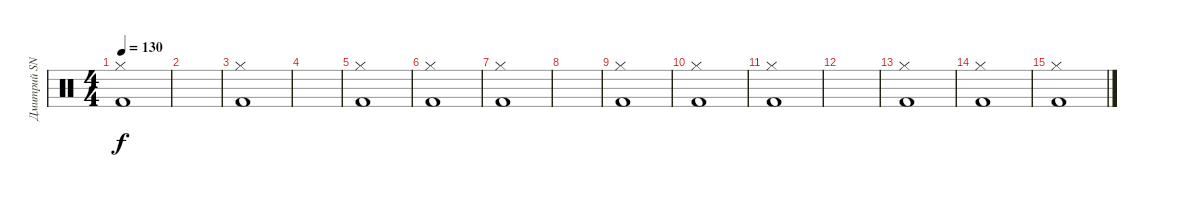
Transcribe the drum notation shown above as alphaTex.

\track ("Дмитрий SNAKE Хакимов" "Дмитрий SN") {instrument percussion}
\staff {score}
\articulation defaults
\ts (4 4)
\tempo 130
\clef neutral
\ks c
("Hi-Hat (closed)" "Kick (hit) 2").1{dy f} |
|
("Hi-Hat (closed)" "Kick (hit) 2").1 |
|
("Hi-Hat (closed)" "Kick (hit) 2").1 |
("Hi-Hat (closed)" "Kick (hit) 2").1 |
("Hi-Hat (closed)" "Kick (hit) 2").1 |
|
("Hi-Hat (closed)" "Kick (hit) 2").1 |
("Hi-Hat (closed)" "Kick (hit) 2").1 |
("Hi-Hat (closed)" "Kick (hit) 2").1 |
|
("Hi-Hat (closed)" "Kick (hit) 2").1 |
("Hi-Hat (closed)" "Kick (hit) 2").1 |
("Hi-Hat (closed)" "Kick (hit) 2").1
